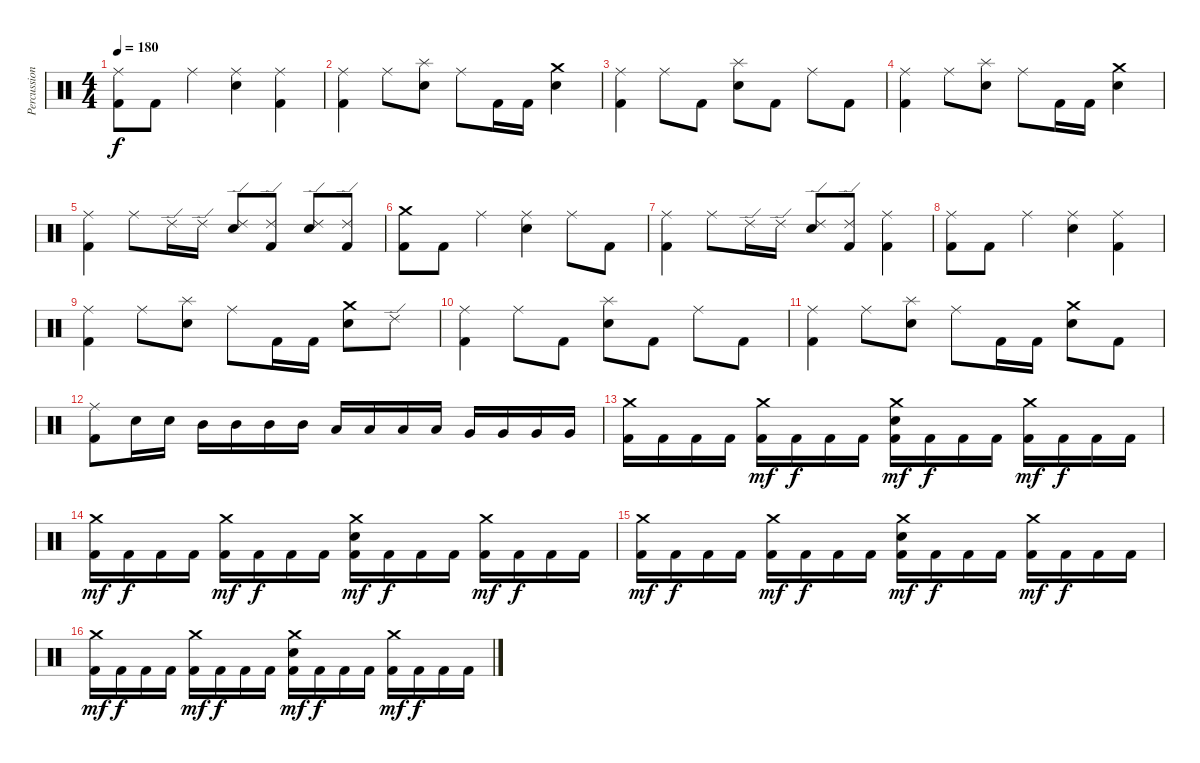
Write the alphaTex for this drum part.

\track ("Percussion" "Percussion") {instrument percussion}
\staff {score}
\articulation defaults
\ts (4 4)
\tempo 180
\clef neutral
\ks c
("Kick (hit) 2" "Ride (middle)").8{dy f} "Kick (hit) 2".8 "Ride (middle)".4 ("Electric Snare (hit)" "Ride (middle)").4 ("Kick (hit) 2" "Ride (middle)").4 |
("Kick (hit) 2" "Ride (middle)").4 "Ride (middle)".8 ("Electric Snare (hit)" "Splash (hit)").8 "Ride (middle)".8 "Kick (hit) 2".16 "Kick (hit) 2".16 ("Electric Snare (hit)" "Crash medium (hit)").4 |
("Kick (hit) 2" "Ride (middle)").4 "Ride (middle)".8 "Kick (hit) 2".8 ("Electric Snare (hit)" "Splash (hit)").8 "Kick (hit) 2".8 "Ride (middle)".8 "Kick (hit) 2".8 |
("Kick (hit) 2" "Ride (middle)").4 "Ride (middle)".8 ("Electric Snare (hit)" "Splash (hit)").8 "Ride (middle)".8 "Kick (hit) 2".16 "Kick (hit) 2".16 ("Electric Snare (hit)" "Crash medium (hit)").4 |
("Kick (hit) 2" "Ride (middle)").4 "Ride (middle)".8 "Ride (edge) 2".16 "Ride (edge) 2".16 ("Electric Snare (hit)" "Ride (edge) 2").8 ("Kick (hit) 2" "Ride (edge) 2").8 ("Electric Snare (hit)" "Ride (edge) 2").8 ("Kick (hit) 2" "Ride (edge) 2").8 |
("Kick (hit) 2" "Crash medium (hit)").8 "Kick (hit) 2".8 "Ride (middle)".4 ("Electric Snare (hit)" "Ride (middle)").4 "Ride (middle)".8 "Kick (hit) 2".8 |
("Kick (hit) 2" "Ride (middle)").4 "Ride (middle)".8 "Ride (edge) 2".16 "Ride (edge) 2".16 ("Electric Snare (hit)" "Ride (edge) 2").8 ("Kick (hit) 2" "Ride (edge) 2").8 ("Kick (hit) 2" "Ride (middle)").4 |
("Kick (hit) 2" "Ride (middle)").8 "Kick (hit) 2".8 "Ride (middle)".4 ("Electric Snare (hit)" "Ride (middle)").4 ("Kick (hit) 2" "Ride (middle)").4 |
("Kick (hit) 2" "Ride (middle)").4 "Ride (middle)".8 ("Electric Snare (hit)" "Splash (hit)").8 "Ride (middle)".8 "Kick (hit) 2".16 "Kick (hit) 2".16 ("Electric Snare (hit)" "Crash medium (hit)").8 "Ride (edge) 2".8 |
("Kick (hit) 2" "Ride (middle)").4 "Ride (middle)".8 "Kick (hit) 2".8 ("Electric Snare (hit)" "Splash (hit)").8 "Kick (hit) 2".8 "Ride (middle)".8 "Kick (hit) 2".8 |
("Kick (hit) 2" "Ride (middle)").4 "Ride (middle)".8 ("Electric Snare (hit)" "Splash (hit)").8 "Ride (middle)".8 "Kick (hit) 2".16 "Kick (hit) 2".16 ("Electric Snare (hit)" "Crash medium (hit)").8 "Kick (hit) 2".8 |
("Kick (hit) 2" "Ride (middle)").8 "Electric Snare (hit)".16 "Electric Snare (hit)".16 "Mid Tom (hit)".16 "Mid Tom (hit)".16 "Mid Tom (hit)".16 "Mid Tom (hit)".16 "Low Tom (hit)".16 "Low Tom (hit)".16 "Low Tom (hit)".16 "Low Tom (hit)".16 "Very Low Tom (hit)".16 "Very Low Tom (hit)".16 "Very Low Tom (hit)".16 "Very Low Tom (hit)".16 |
("Kick (hit) 2" "Crash medium (hit)").16 "Kick (hit) 2".16 "Kick (hit) 2".16 "Kick (hit) 2".16 ("Kick (hit) 2" "Crash medium (hit)").16{dy mf} "Kick (hit) 2".16{dy f} "Kick (hit) 2".16 "Kick (hit) 2".16 ("Kick (hit) 2" "Electric Snare (hit)" "Crash medium (hit)").16{dy mf} "Kick (hit) 2".16{dy f} "Kick (hit) 2".16 "Kick (hit) 2".16 ("Kick (hit) 2" "Crash medium (hit)").16{dy mf} "Kick (hit) 2".16{dy f} "Kick (hit) 2".16 "Kick (hit) 2".16 |
("Kick (hit) 2" "Crash medium (hit)").16{dy mf} "Kick (hit) 2".16{dy f} "Kick (hit) 2".16 "Kick (hit) 2".16 ("Kick (hit) 2" "Crash medium (hit)").16{dy mf} "Kick (hit) 2".16{dy f} "Kick (hit) 2".16 "Kick (hit) 2".16 ("Kick (hit) 2" "Electric Snare (hit)" "Crash medium (hit)").16{dy mf} "Kick (hit) 2".16{dy f} "Kick (hit) 2".16 "Kick (hit) 2".16 ("Kick (hit) 2" "Crash medium (hit)").16{dy mf} "Kick (hit) 2".16{dy f} "Kick (hit) 2".16 "Kick (hit) 2".16 |
("Kick (hit) 2" "Crash medium (hit)").16{dy mf} "Kick (hit) 2".16{dy f} "Kick (hit) 2".16 "Kick (hit) 2".16 ("Kick (hit) 2" "Crash medium (hit)").16{dy mf} "Kick (hit) 2".16{dy f} "Kick (hit) 2".16 "Kick (hit) 2".16 ("Kick (hit) 2" "Electric Snare (hit)" "Crash medium (hit)").16{dy mf} "Kick (hit) 2".16{dy f} "Kick (hit) 2".16 "Kick (hit) 2".16 ("Kick (hit) 2" "Crash medium (hit)").16{dy mf} "Kick (hit) 2".16{dy f} "Kick (hit) 2".16 "Kick (hit) 2".16 |
("Kick (hit) 2" "Crash medium (hit)").16{dy mf} "Kick (hit) 2".16{dy f} "Kick (hit) 2".16 "Kick (hit) 2".16 ("Kick (hit) 2" "Crash medium (hit)").16{dy mf} "Kick (hit) 2".16{dy f} "Kick (hit) 2".16 "Kick (hit) 2".16 ("Kick (hit) 2" "Electric Snare (hit)" "Crash medium (hit)").16{dy mf} "Kick (hit) 2".16{dy f} "Kick (hit) 2".16 "Kick (hit) 2".16 ("Kick (hit) 2" "Crash medium (hit)").16{dy mf} "Kick (hit) 2".16{dy f} "Kick (hit) 2".16 "Kick (hit) 2".16
